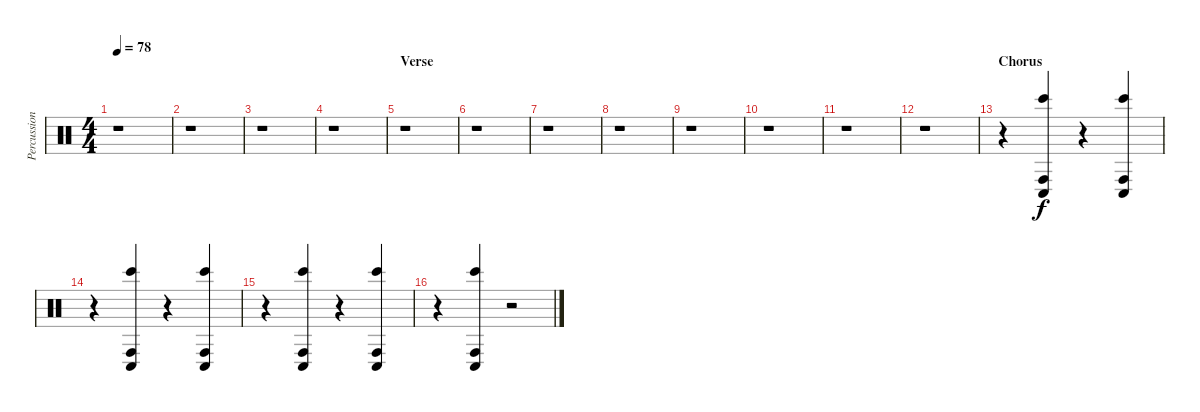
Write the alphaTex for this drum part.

\track ("Percussion/SFX" "Percussion") {instrument percussion}
\staff {score}
\articulation defaults
\ts (4 4)
\tempo 78
\clef neutral
\ks c
r.1{dy f} |
r.1 |
r.1 |
r.1 |
\section ("" "Verse")
r.1 |
r.1 |
r.1 |
r.1 |
r.1 |
r.1 |
r.1 |
r.1 |
\section ("" "Chorus")
r.4 ("Conga low (hit)" "Bongo High (hit)" "Conga high (hit)").4 r.4 ("Conga low (hit)" "Bongo High (hit)" "Conga high (hit)").4 |
r.4 ("Conga low (hit)" "Bongo High (hit)" "Conga high (hit)").4 r.4 ("Conga low (hit)" "Bongo High (hit)" "Conga high (hit)").4 |
r.4 ("Conga low (hit)" "Bongo High (hit)" "Conga high (hit)").4 r.4 ("Conga low (hit)" "Bongo High (hit)" "Conga high (hit)").4 |
r.4 ("Conga low (hit)" "Bongo High (hit)" "Conga high (hit)").4 r.2
